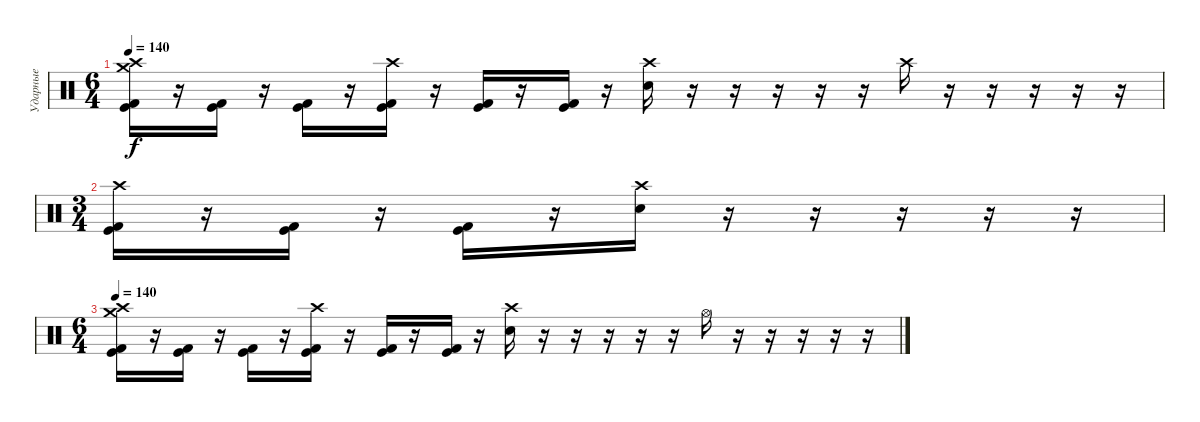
\track ("Ударные" "Ударные") {instrument percussion}
\staff {score}
\articulation defaults
\ts (6 4)
\tempo 140
\clef neutral
\ks c
("Crash medium (hit)" "Crash high (hit)" "Kick (hit)" "Kick (hit) 2").16{dy f} r.16 ("Kick (hit)" "Kick (hit) 2").16 r.16 ("Kick (hit)" "Kick (hit) 2").16 r.16 ("Crash high (hit)" "Kick (hit)" "Kick (hit) 2").16 r.16 ("Kick (hit)" "Kick (hit) 2").16 r.16 ("Kick (hit)" "Kick (hit) 2").16 r.16 ("Crash high (hit)" "Electric Snare (hit)").16 r.16 r.16 r.16 r.16 r.16 "Crash high (hit)".16 r.16 r.16 r.16 r.16 r.16 |
\ts (3 4)
("Crash high (hit)" "Kick (hit)" "Kick (hit) 2").16 r.16 ("Kick (hit)" "Kick (hit) 2").16 r.16 ("Kick (hit)" "Kick (hit) 2").16 r.16 ("Crash high (hit)" "Electric Snare (hit)").16 r.16 r.16 r.16 r.16 r.16 |
\ts (6 4)
\tempo 140
("Crash medium (hit)" "Crash high (hit)" "Kick (hit)" "Kick (hit) 2").16 r.16 ("Kick (hit)" "Kick (hit) 2").16 r.16 ("Kick (hit)" "Kick (hit) 2").16 r.16 ("Crash high (hit)" "Kick (hit)" "Kick (hit) 2").16 r.16 ("Kick (hit)" "Kick (hit) 2").16 r.16 ("Kick (hit)" "Kick (hit) 2").16 r.16 ("Crash high (hit)" "Electric Snare (hit)").16 r.16 r.16 r.16 r.16 r.16 "Hi-Hat (open)".16 r.16 r.16 r.16 r.16 r.16
